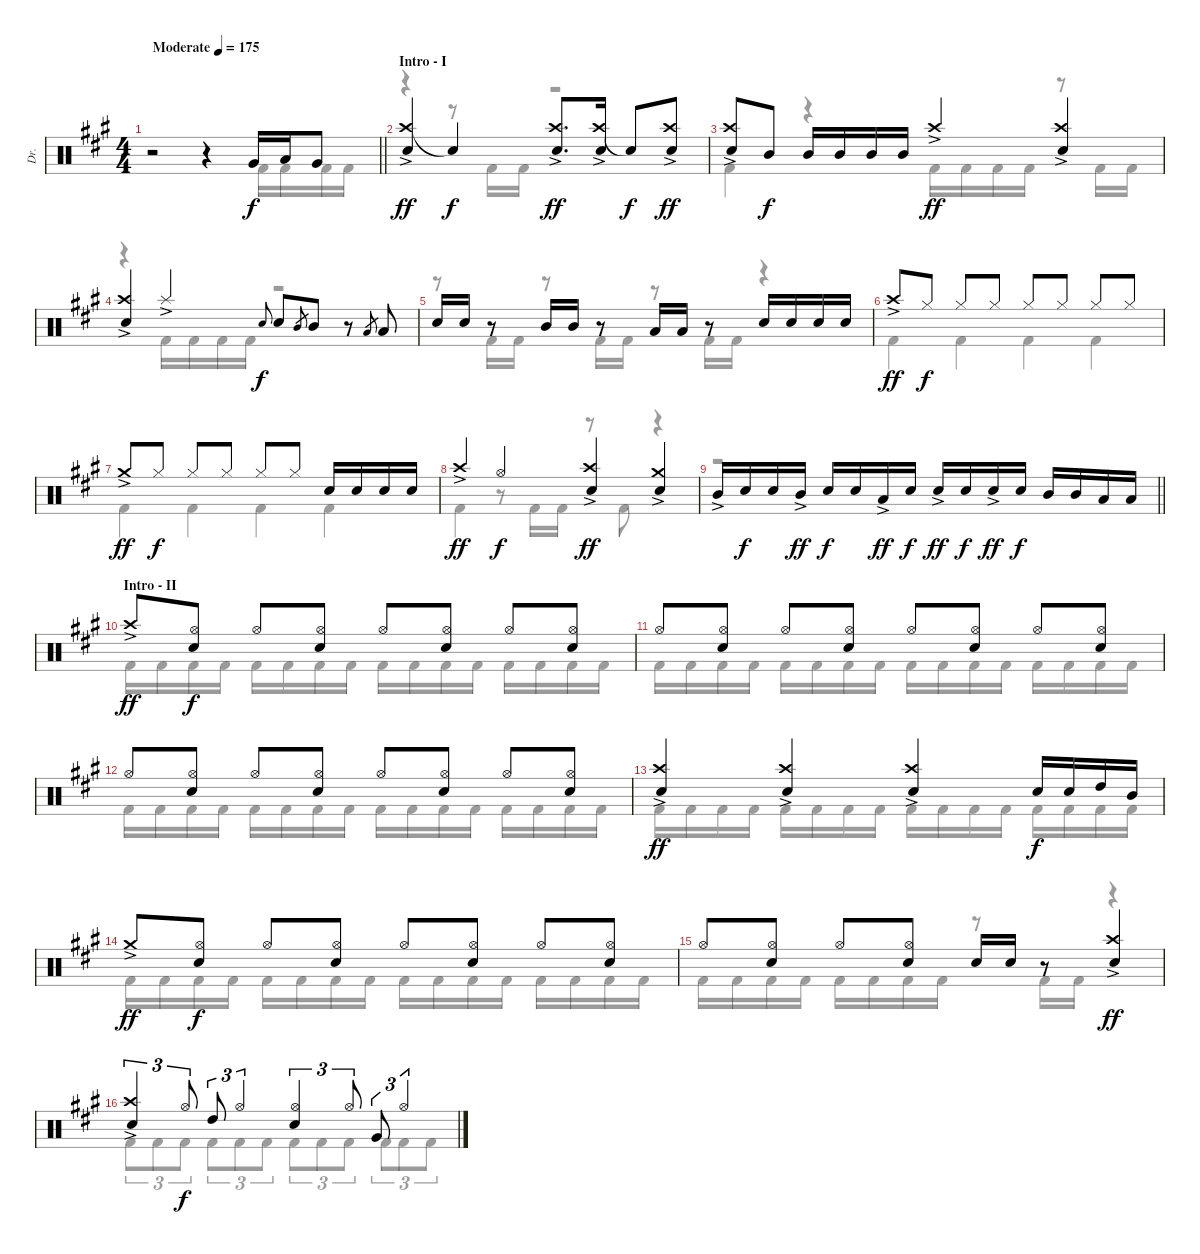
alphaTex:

\track ("Dr." "Dr.") {instrument percussion}
\staff {score}
\articulation defaults
\voice
\ts (4 4)
\tempo (175 "Moderate")
\clef neutral
\barLineRight lightlight
\ks f#minor
r.2{dy f} r.4 "Very Low Tom (hit)".16 "Low Tom (hit)".16 "Very Low Tom (hit)".8 |
\section ("" "Intro - I")
("Crash high (hit)"{ac} "Electric Snare (hit)").4{dy ff} "Snare (hit)"{t}.4{dy f} ("Crash high (hit)"{ac} "Electric Snare (hit)").8{d dy ff} ("Crash high (hit)"{ac} "Electric Snare (hit)").16 "Snare (hit)"{t}.8{dy f} ("Crash high (hit)"{ac} "Electric Snare (hit)").8{dy ff} |
("Crash high (hit)"{ac} "Electric Snare (hit)").8 "Mid Tom (hit)".8{dy f} "Mid Tom (hit)".16 "Mid Tom (hit)".16 "Mid Tom (hit)".16 "Mid Tom (hit)".16 "Crash high (hit)"{ac}.4{dy ff} ("Crash high (hit)"{ac} "Electric Snare (hit)").4 |
("Crash high (hit)"{ac} "Electric Snare (hit)").4 "Splash (hit)"{ac}.4 "Electric Snare (hit)".8{gr onbeat dy f} "Electric Snare (hit)".8 "Mid Tom (hit)".8{gr} "Mid Tom (hit)".8 r.8 "Low Tom (hit)".8{gr} "Low Tom (hit)".8 |
"Electric Snare (hit)".16 "Electric Snare (hit)".16 r.8 "Mid Tom (hit)".16 "Mid Tom (hit)".16 r.8 "Low Tom (hit)".16 "Low Tom (hit)".16 r.8 "Electric Snare (hit)".16 "Electric Snare (hit)".16 "Electric Snare (hit)".16 "Electric Snare (hit)".16 |
"Crash high (hit)"{ac}.8{dy ff} "Hi-Hat (closed)".8{dy f} "Hi-Hat (closed)".8 "Hi-Hat (closed)".8 "Hi-Hat (closed)".8 "Hi-Hat (closed)".8 "Hi-Hat (closed)".8 "Hi-Hat (closed)".8 |
"Crash medium (hit)"{ac}.8{dy ff} "Hi-Hat (closed)".8{dy f} "Hi-Hat (closed)".8 "Hi-Hat (closed)".8 "Hi-Hat (closed)".8 "Hi-Hat (closed)".8 "Electric Snare (hit)".16 "Electric Snare (hit)".16 "Electric Snare (hit)".16 "Electric Snare (hit)".16 |
"Crash high (hit)"{ac}.4{dy ff} "Hi-Hat (open)".4{dy f} ("Crash high (hit)"{ac} "Electric Snare (hit)").4{dy ff} ("Crash medium (hit)"{ac} "Electric Snare (hit)").4 |
\barLineRight lightlight "Mid Tom (hit)"{ac}.16 "Electric Snare (hit)".16{dy f} "Electric Snare (hit)".16 "Mid Tom (hit)"{ac}.16{dy ff} "Electric Snare (hit)".16{dy f} "Electric Snare (hit)".16 "Low Tom (hit)"{ac}.16{dy ff} "Electric Snare (hit)".16{dy f} "Electric Snare (hit)"{ac}.16{dy ff} "Electric Snare (hit)".16{dy f} "Electric Snare (hit)"{ac}.16{dy ff} "Electric Snare (hit)".16{dy f} "Mid Tom (hit)".16 "Mid Tom (hit)".16 "Low Tom (hit)".16 "Low Tom (hit)".16
|
\section ("" "Intro - II")
"Crash high (hit)"{ac}.8{dy ff} ("Hi-Hat (open)" "Electric Snare (hit)").8{dy f} "Hi-Hat (open)".8 ("Hi-Hat (open)" "Electric Snare (hit)").8 "Hi-Hat (open)".8 ("Hi-Hat (open)" "Electric Snare (hit)").8 "Hi-Hat (open)".8 ("Hi-Hat (open)" "Electric Snare (hit)").8 |
"Hi-Hat (open)".8 ("Hi-Hat (open)" "Electric Snare (hit)").8 "Hi-Hat (open)".8 ("Hi-Hat (open)" "Electric Snare (hit)").8 "Hi-Hat (open)".8 ("Hi-Hat (open)" "Electric Snare (hit)").8 "Hi-Hat (open)".8 ("Hi-Hat (open)" "Electric Snare (hit)").8 |
"Hi-Hat (open)".8 ("Hi-Hat (open)" "Electric Snare (hit)").8 "Hi-Hat (open)".8 ("Hi-Hat (open)" "Electric Snare (hit)").8 "Hi-Hat (open)".8 ("Hi-Hat (open)" "Electric Snare (hit)").8 "Hi-Hat (open)".8 ("Hi-Hat (open)" "Electric Snare (hit)").8 |
("Crash high (hit)"{ac} "Electric Snare (hit)").4{dy ff} ("Crash high (hit)"{ac} "Electric Snare (hit)").4 ("Crash high (hit)"{ac} "Electric Snare (hit)").4 "Electric Snare (hit)".16{dy f} "Electric Snare (hit)".16 "High Tom (hit)".16 "Mid Tom (hit)".16 |
"Crash medium (hit)"{ac}.8{dy ff} ("Hi-Hat (open)" "Electric Snare (hit)").8{dy f} "Hi-Hat (open)".8 ("Hi-Hat (open)" "Electric Snare (hit)").8 "Hi-Hat (open)".8 ("Hi-Hat (open)" "Electric Snare (hit)").8 "Hi-Hat (open)".8 ("Hi-Hat (open)" "Electric Snare (hit)").8 |
"Hi-Hat (open)".8 ("Hi-Hat (open)" "Electric Snare (hit)").8 "Hi-Hat (open)".8 ("Hi-Hat (open)" "Electric Snare (hit)").8 "Electric Snare (hit)".16 "Electric Snare (hit)".16 r.8 ("Crash high (hit)"{ac} "Electric Snare (hit)").4{dy ff} |
("Crash high (hit)"{ac} "Electric Snare (hit)").4{tu (3 2)} "Hi-Hat (open)".8{tu (3 2) dy f} "High Tom (hit)".8{tu (3 2)} "Hi-Hat (open)".4{tu (3 2)} ("Hi-Hat (open)" "Electric Snare (hit)").4{tu (3 2)} "Hi-Hat (open)".8{tu (3 2)} "Very Low Tom (hit)".8{tu (3 2)} "Hi-Hat (open)".4{tu (3 2)}
\voice
\clef neutral
\ottava regular
\simile none
\barLineRight lightlight
\ks f#minor
r.2{dy f} r.4 "Kick (hit) 2".16 "Kick (hit) 2".16 "Kick (hit) 2".16 "Kick (hit) 2".16 |
r.4 r.8 "Kick (hit) 2".16 "Kick (hit) 2".16 r.2 |
"Kick (hit) 2".4 r.4 "Kick (hit) 2".16 "Kick (hit) 2".16 "Kick (hit) 2".16 "Kick (hit) 2".16 r.8 "Kick (hit) 2".16 "Kick (hit) 2".16 |
r.4 "Kick (hit) 2".16 "Kick (hit) 2".16 "Kick (hit) 2".16 "Kick (hit) 2".16 r.2 |
r.8 "Kick (hit) 2".16 "Kick (hit) 2".16 r.8 "Kick (hit) 2".16 "Kick (hit) 2".16 r.8 "Kick (hit) 2".16 "Kick (hit) 2".16 r.4 |
"Kick (hit) 2".4 "Kick (hit) 2".4 "Kick (hit) 2".4 "Kick (hit) 2".4 |
"Kick (hit) 2".4 "Kick (hit) 2".4 "Kick (hit) 2".4 "Kick (hit) 2".4 |
"Kick (hit) 2".4 r.8 "Kick (hit) 2".16 "Kick (hit) 2".16 r.8 "Kick (hit) 2".8 r.4 |
\barLineRight lightlight
r.1 |
"Kick (hit) 2".16 "Kick (hit) 2".16 "Kick (hit) 2".16 "Kick (hit) 2".16 "Kick (hit) 2".16 "Kick (hit) 2".16 "Kick (hit) 2".16 "Kick (hit) 2".16 "Kick (hit) 2".16 "Kick (hit) 2".16 "Kick (hit) 2".16 "Kick (hit) 2".16 "Kick (hit) 2".16 "Kick (hit) 2".16 "Kick (hit) 2".16 "Kick (hit) 2".16 |
"Kick (hit) 2".16 "Kick (hit) 2".16 "Kick (hit) 2".16 "Kick (hit) 2".16 "Kick (hit) 2".16 "Kick (hit) 2".16 "Kick (hit) 2".16 "Kick (hit) 2".16 "Kick (hit) 2".16 "Kick (hit) 2".16 "Kick (hit) 2".16 "Kick (hit) 2".16 "Kick (hit) 2".16 "Kick (hit) 2".16 "Kick (hit) 2".16 "Kick (hit) 2".16 |
"Kick (hit) 2".16 "Kick (hit) 2".16 "Kick (hit) 2".16 "Kick (hit) 2".16 "Kick (hit) 2".16 "Kick (hit) 2".16 "Kick (hit) 2".16 "Kick (hit) 2".16 "Kick (hit) 2".16 "Kick (hit) 2".16 "Kick (hit) 2".16 "Kick (hit) 2".16 "Kick (hit) 2".16 "Kick (hit) 2".16 "Kick (hit) 2".16 "Kick (hit) 2".16 |
"Kick (hit) 2".16 "Kick (hit) 2".16 "Kick (hit) 2".16 "Kick (hit) 2".16 "Kick (hit) 2".16 "Kick (hit) 2".16 "Kick (hit) 2".16 "Kick (hit) 2".16 "Kick (hit) 2".16 "Kick (hit) 2".16 "Kick (hit) 2".16 "Kick (hit) 2".16 "Kick (hit) 2".16 "Kick (hit) 2".16 "Kick (hit) 2".16 "Kick (hit) 2".16 |
"Kick (hit) 2".16 "Kick (hit) 2".16 "Kick (hit) 2".16 "Kick (hit) 2".16 "Kick (hit) 2".16 "Kick (hit) 2".16 "Kick (hit) 2".16 "Kick (hit) 2".16 "Kick (hit) 2".16 "Kick (hit) 2".16 "Kick (hit) 2".16 "Kick (hit) 2".16 "Kick (hit) 2".16 "Kick (hit) 2".16 "Kick (hit) 2".16 "Kick (hit) 2".16 |
"Kick (hit) 2".16 "Kick (hit) 2".16 "Kick (hit) 2".16 "Kick (hit) 2".16 "Kick (hit) 2".16 "Kick (hit) 2".16 "Kick (hit) 2".16 "Kick (hit) 2".16 r.8 "Kick (hit) 2".16 "Kick (hit) 2".16 r.4 |
"Kick (hit) 2".8{tu (3 2)} "Kick (hit) 2".8{tu (3 2)} "Kick (hit) 2".8{tu (3 2)} "Kick (hit) 2".8{tu (3 2)} "Kick (hit) 2".8{tu (3 2)} "Kick (hit) 2".8{tu (3 2)} "Kick (hit) 2".8{tu (3 2)} "Kick (hit) 2".8{tu (3 2)} "Kick (hit) 2".8{tu (3 2)} "Kick (hit) 2".8{tu (3 2)} "Kick (hit) 2".8{tu (3 2)} "Kick (hit) 2".8{tu (3 2)}
